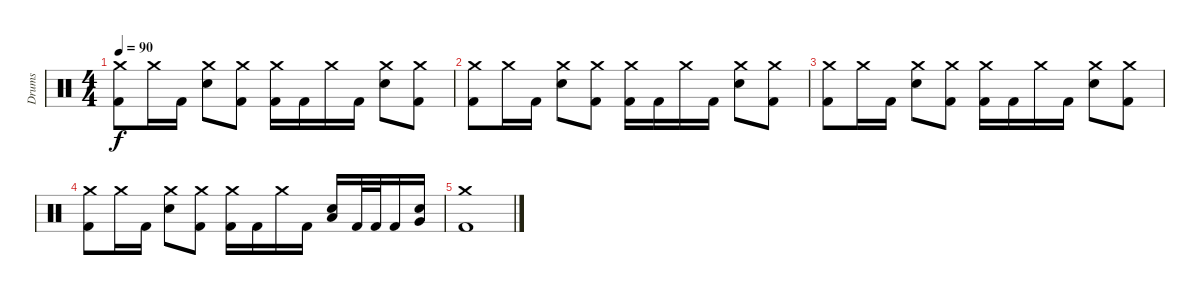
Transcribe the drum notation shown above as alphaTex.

\track ("Drums" "Drums") {instrument percussion}
\staff {score}
\articulation defaults
\ts (4 4)
\tempo 90
\clef neutral
\ks c
("Crash medium (hit)" "Kick (hit) 2").8{dy f} "Crash medium (hit)".16 "Kick (hit) 2".16 ("Crash medium (hit)" "Electric Snare (hit)").8 ("Crash medium (hit)" "Kick (hit) 2").8 ("Crash medium (hit)" "Kick (hit) 2").16 "Kick (hit) 2".16 "Crash medium (hit)".16 "Kick (hit) 2".16 ("Crash medium (hit)" "Electric Snare (hit)").8 ("Crash medium (hit)" "Kick (hit) 2").8 |
("Crash medium (hit)" "Kick (hit) 2").8 "Crash medium (hit)".16 "Kick (hit) 2".16 ("Crash medium (hit)" "Electric Snare (hit)").8 ("Crash medium (hit)" "Kick (hit) 2").8 ("Crash medium (hit)" "Kick (hit) 2").16 "Kick (hit) 2".16 "Crash medium (hit)".16 "Kick (hit) 2".16 ("Crash medium (hit)" "Electric Snare (hit)").8 ("Crash medium (hit)" "Kick (hit) 2").8 |
("Crash medium (hit)" "Kick (hit) 2").8 "Crash medium (hit)".16 "Kick (hit) 2".16 ("Crash medium (hit)" "Electric Snare (hit)").8 ("Crash medium (hit)" "Kick (hit) 2").8 ("Crash medium (hit)" "Kick (hit) 2").16 "Kick (hit) 2".16 "Crash medium (hit)".16 "Kick (hit) 2".16 ("Crash medium (hit)" "Electric Snare (hit)").8 ("Crash medium (hit)" "Kick (hit) 2").8 |
("Crash medium (hit)" "Kick (hit) 2").8 "Crash medium (hit)".16 "Kick (hit) 2".16 ("Crash medium (hit)" "Electric Snare (hit)").8 ("Crash medium (hit)" "Kick (hit) 2").8 ("Crash medium (hit)" "Kick (hit) 2").16 "Kick (hit) 2".16 "Crash medium (hit)".16 "Kick (hit) 2".16 ("Electric Snare (hit)" "Low Tom (hit)").16 "Kick (hit) 2".32 "Kick (hit) 2".32 "Kick (hit) 2".16 ("Electric Snare (hit)" "Very Low Tom (hit)").16 |
("Crash medium (hit)" "Kick (hit) 2").1
